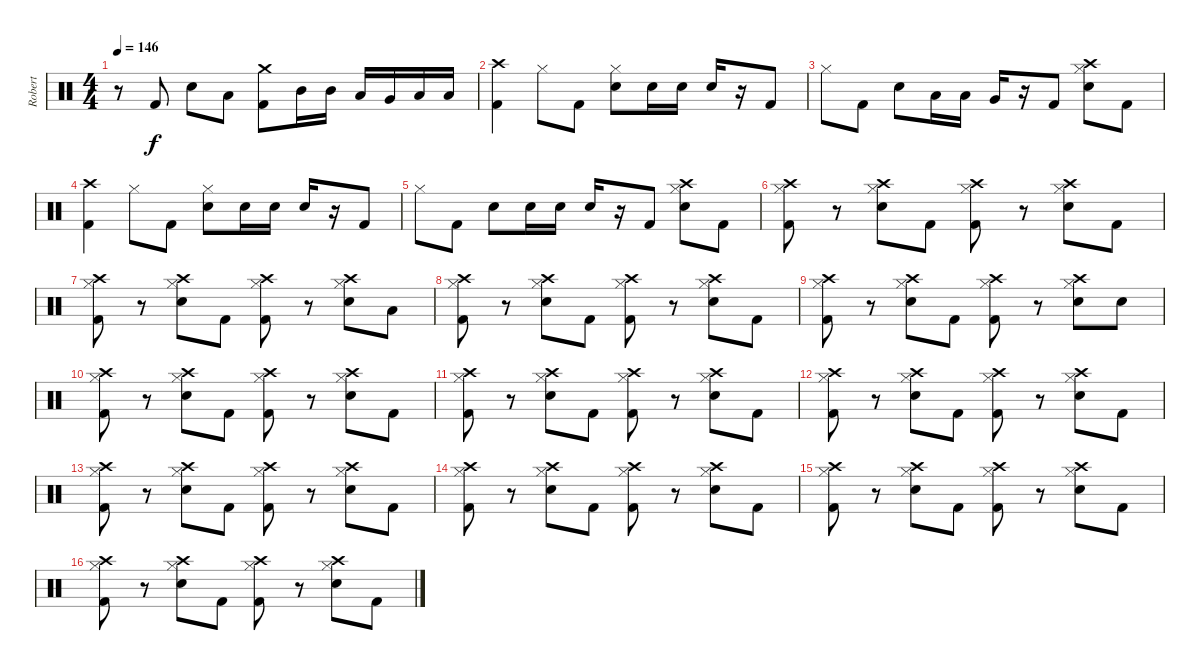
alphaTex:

\track ("Robert" "Robert") {instrument percussion}
\staff {score}
\articulation defaults
\ts (4 4)
\tempo 146
\clef neutral
\ks c
r.8{dy f} "Kick (hit) 2".8 "Electric Snare (hit)".8 "Low Tom (hit)".8 ("Crash medium (hit)" "Kick (hit) 2").8 "Mid Tom (hit)".16 "Mid Tom (hit)".16 "Low Tom (hit)".16 "Very Low Tom (hit)".16 "Low Floor Tom (hit)".16 "Low Floor Tom (hit)".16 |
("Crash high (hit)" "Kick (hit) 2").4 "Hi-Hat (closed)".8 "Kick (hit) 2".8 ("Hi-Hat (closed)" "Electric Snare (hit)").8 "Electric Snare (hit)".16 "Electric Snare (hit)".16 "Electric Snare (hit)".16 r.16 "Kick (hit) 2".8 |
"Hi-Hat (closed)".8 "Kick (hit) 2".8 "Electric Snare (hit)".8 "Low Tom (hit)".16 "Low Tom (hit)".16 "Very Low Tom (hit)".16 r.16 "Kick (hit) 2".8 ("Crash high (hit)" "Hi-Hat (closed)" "Electric Snare (hit)").8 "Kick (hit) 2".8 |
("Crash high (hit)" "Kick (hit) 2").4 "Hi-Hat (closed)".8 "Kick (hit) 2".8 ("Hi-Hat (closed)" "Electric Snare (hit)").8 "Electric Snare (hit)".16 "Electric Snare (hit)".16 "Electric Snare (hit)".16 r.16 "Kick (hit) 2".8 |
"Hi-Hat (closed)".8 "Kick (hit) 2".8 "Electric Snare (hit)".8 "Electric Snare (hit)".16 "Electric Snare (hit)".16 "Electric Snare (hit)".16 r.16 "Kick (hit) 2".8 ("Crash high (hit)" "Hi-Hat (closed)" "Electric Snare (hit)").8 "Kick (hit) 2".8 |
("Crash high (hit)" "Hi-Hat (closed)" "Kick (hit) 2").8 r.8 ("Crash high (hit)" "Hi-Hat (closed)" "Electric Snare (hit)").8 "Kick (hit) 2".8 ("Crash high (hit)" "Hi-Hat (closed)" "Kick (hit) 2").8 r.8 ("Crash high (hit)" "Hi-Hat (closed)" "Electric Snare (hit)").8 "Kick (hit) 2".8 |
("Crash high (hit)" "Hi-Hat (closed)" "Kick (hit) 2").8 r.8 ("Crash high (hit)" "Hi-Hat (closed)" "Electric Snare (hit)").8 "Kick (hit) 2".8 ("Crash high (hit)" "Hi-Hat (closed)" "Kick (hit) 2").8 r.8 ("Crash high (hit)" "Hi-Hat (closed)" "Electric Snare (hit)").8 "Low Tom (hit)".8 |
("Crash high (hit)" "Hi-Hat (closed)" "Kick (hit) 2").8 r.8 ("Crash high (hit)" "Hi-Hat (closed)" "Electric Snare (hit)").8 "Kick (hit) 2".8 ("Crash high (hit)" "Hi-Hat (closed)" "Kick (hit) 2").8 r.8 ("Crash high (hit)" "Hi-Hat (closed)" "Electric Snare (hit)").8 "Kick (hit) 2".8 |
("Crash high (hit)" "Hi-Hat (closed)" "Kick (hit) 2").8 r.8 ("Crash high (hit)" "Hi-Hat (closed)" "Electric Snare (hit)").8 "Kick (hit) 2".8 ("Crash high (hit)" "Hi-Hat (closed)" "Kick (hit) 2").8 r.8 ("Crash high (hit)" "Hi-Hat (closed)" "Electric Snare (hit)").8 "Electric Snare (hit)".8 |
("Crash high (hit)" "Hi-Hat (closed)" "Kick (hit) 2").8 r.8 ("Crash high (hit)" "Hi-Hat (closed)" "Electric Snare (hit)").8 "Kick (hit) 2".8 ("Crash high (hit)" "Hi-Hat (closed)" "Kick (hit) 2").8 r.8 ("Crash high (hit)" "Hi-Hat (closed)" "Electric Snare (hit)").8 "Kick (hit) 2".8 |
("Crash high (hit)" "Hi-Hat (closed)" "Kick (hit) 2").8 r.8 ("Crash high (hit)" "Hi-Hat (closed)" "Electric Snare (hit)").8 "Kick (hit) 2".8 ("Crash high (hit)" "Hi-Hat (closed)" "Kick (hit) 2").8 r.8 ("Crash high (hit)" "Hi-Hat (closed)" "Electric Snare (hit)").8 "Kick (hit) 2".8 |
("Crash high (hit)" "Hi-Hat (closed)" "Kick (hit) 2").8 r.8 ("Crash high (hit)" "Hi-Hat (closed)" "Electric Snare (hit)").8 "Kick (hit) 2".8 ("Crash high (hit)" "Hi-Hat (closed)" "Kick (hit) 2").8 r.8 ("Crash high (hit)" "Hi-Hat (closed)" "Electric Snare (hit)").8 "Kick (hit) 2".8 |
("Crash high (hit)" "Hi-Hat (closed)" "Kick (hit) 2").8 r.8 ("Crash high (hit)" "Hi-Hat (closed)" "Electric Snare (hit)").8 "Kick (hit) 2".8 ("Crash high (hit)" "Hi-Hat (closed)" "Kick (hit) 2").8 r.8 ("Crash high (hit)" "Hi-Hat (closed)" "Electric Snare (hit)").8 "Kick (hit) 2".8 |
("Crash high (hit)" "Hi-Hat (closed)" "Kick (hit) 2").8 r.8 ("Crash high (hit)" "Hi-Hat (closed)" "Electric Snare (hit)").8 "Kick (hit) 2".8 ("Crash high (hit)" "Hi-Hat (closed)" "Kick (hit) 2").8 r.8 ("Crash high (hit)" "Hi-Hat (closed)" "Electric Snare (hit)").8 "Kick (hit) 2".8 |
("Crash high (hit)" "Hi-Hat (closed)" "Kick (hit) 2").8 r.8 ("Crash high (hit)" "Hi-Hat (closed)" "Electric Snare (hit)").8 "Kick (hit) 2".8 ("Crash high (hit)" "Hi-Hat (closed)" "Kick (hit) 2").8 r.8 ("Crash high (hit)" "Hi-Hat (closed)" "Electric Snare (hit)").8 "Kick (hit) 2".8 |
("Crash high (hit)" "Hi-Hat (closed)" "Kick (hit) 2").8 r.8 ("Crash high (hit)" "Hi-Hat (closed)" "Electric Snare (hit)").8 "Kick (hit) 2".8 ("Crash high (hit)" "Hi-Hat (closed)" "Kick (hit) 2").8 r.8 ("Crash high (hit)" "Hi-Hat (closed)" "Electric Snare (hit)").8 "Kick (hit) 2".8
